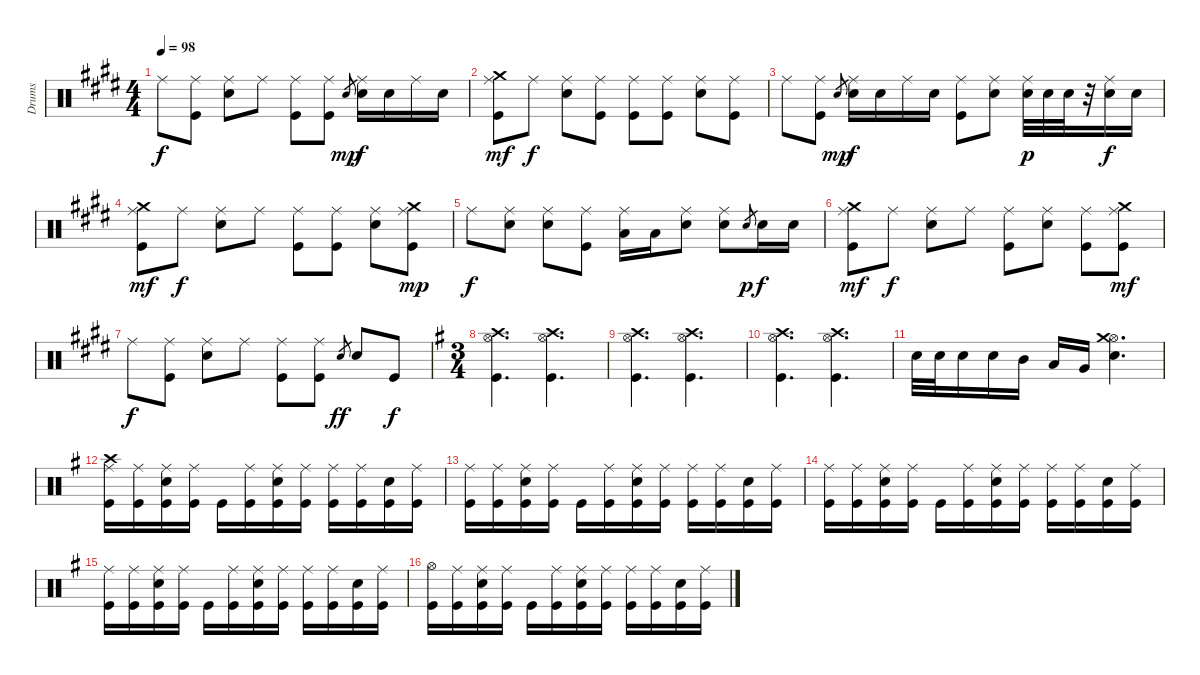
\track ("Drums" "Drums") {instrument percussion}
\staff {score}
\articulation defaults
\ts (4 4)
\tempo 98
\clef neutral
\ks c#minor "Ride (middle)".8{dy f}
("Ride (middle)" "Kick (hit)").8 ("Ride (middle)" "Electric Snare (hit)").8 "Ride (middle)".8 ("Ride (middle)" "Kick (hit)").8 ("Ride (middle)" "Kick (hit)").8 "Electric Snare (hit)".8{gr dy mp} ("Ride (middle)" "Electric Snare (hit)").16{dy f} "Electric Snare (hit)".16 "Ride (middle)".16 "Electric Snare (hit)".16 |
("Crash medium (hit)" "Ride (middle)" "Kick (hit)").8{dy mf} "Ride (middle)".8{dy f} ("Ride (middle)" "Electric Snare (hit)").8 ("Ride (middle)" "Kick (hit)").8 ("Ride (middle)" "Kick (hit)").8 ("Ride (middle)" "Kick (hit)").8 ("Ride (middle)" "Electric Snare (hit)").8 ("Ride (middle)" "Kick (hit)").8 |
"Ride (middle)".8 ("Ride (middle)" "Kick (hit)").8 "Electric Snare (hit)".8{gr dy mp} ("Ride (middle)" "Electric Snare (hit)").16{dy f} "Electric Snare (hit)".16 "Ride (middle)".16 "Electric Snare (hit)".16 ("Ride (middle)" "Kick (hit)").8 ("Ride (middle)" "Electric Snare (hit)").8 ("Ride (middle)" "Electric Snare (hit)").32{dy p} "Electric Snare (hit)".32 "Electric Snare (hit)".32 r.32 ("Ride (middle)" "Electric Snare (hit)").16{dy f} "Electric Snare (hit)".16 |
("Crash medium (hit)" "Ride (middle)" "Kick (hit)").8{dy mf} "Ride (middle)".8{dy f} ("Ride (middle)" "Electric Snare (hit)").8 "Ride (middle)".8 ("Ride (middle)" "Kick (hit)").8 ("Ride (middle)" "Kick (hit)").8 ("Ride (middle)" "Electric Snare (hit)").8 ("Crash medium (hit)" "Ride (middle)" "Kick (hit)").8{dy mp} |
"Ride (middle)".8{dy f} ("Ride (middle)" "Electric Snare (hit)").8 ("Ride (middle)" "Electric Snare (hit)").8 ("Ride (middle)" "Kick (hit)").8 ("Ride (middle)" "Low Tom (hit)").16 "Low Tom (hit)".16 ("Ride (middle)" "Electric Snare (hit)").8 ("Ride (middle)" "Electric Snare (hit)").8 "Electric Snare (hit)".8{gr dy p} "Electric Snare (hit)".16{dy f} "Electric Snare (hit)".16 |
("Crash medium (hit)" "Ride (middle)" "Kick (hit)").8{dy mf} "Ride (middle)".8{dy f} ("Ride (middle)" "Electric Snare (hit)").8 "Ride (middle)".8 ("Ride (middle)" "Kick (hit)").8 ("Ride (middle)" "Electric Snare (hit)").8 ("Ride (middle)" "Kick (hit)").8 ("Crash medium (hit)" "Ride (middle)" "Kick (hit)").8{dy mf} |
"Ride (middle)".8{dy f} ("Ride (middle)" "Kick (hit)").8 ("Ride (middle)" "Electric Snare (hit)").8 "Ride (middle)".8 ("Ride (middle)" "Kick (hit)").8 ("Ride (middle)" "Kick (hit)").8 "Snare (hit) 2"{sl}.8{gr dy ff} "Electric Snare (hit)".8 "Kick (hit)".8{dy f} |
\ts (3 4)
\ks eminor
("Crash high (hit)" "Hi-Hat (open)" "Kick (hit)").4{d} ("Crash high (hit)" "Hi-Hat (open)" "Kick (hit)").4{d} |
("Crash high (hit)" "Hi-Hat (open)" "Kick (hit)").4{d} ("Crash high (hit)" "Hi-Hat (open)" "Kick (hit)").4{d} |
("Crash high (hit)" "Hi-Hat (open)" "Kick (hit)").4{d} ("Crash high (hit)" "Hi-Hat (open)" "Kick (hit)").4{d} |
"Electric Snare (hit)".32 "Electric Snare (hit)".32 "Electric Snare (hit)".16 "Electric Snare (hit)".16 "Mid Tom (hit)".16 "Low Tom (hit)".16 "Very Low Tom (hit)".16 ("Hi-Hat (open)" "Crash medium (hit)" "Electric Snare (hit)").4{d} |
("Crash high (hit)" "Ride (middle)" "Kick (hit)").16 ("Ride (middle)" "Kick (hit)").16 ("Ride (middle)" "Electric Snare (hit)" "Kick (hit)").16 ("Ride (middle)" "Kick (hit)").16 "Kick (hit)".16 ("Ride (middle)" "Kick (hit)").16 ("Ride (middle)" "Electric Snare (hit)" "Kick (hit)").16 ("Ride (middle)" "Kick (hit)").16 ("Ride (middle)" "Kick (hit)").16 ("Ride (middle)" "Kick (hit)").16 ("Electric Snare (hit)" "Kick (hit)").16 ("Ride (middle)" "Kick (hit)").16 |
("Ride (middle)" "Kick (hit)").16 ("Ride (middle)" "Kick (hit)").16 ("Ride (middle)" "Electric Snare (hit)" "Kick (hit)").16 ("Ride (middle)" "Kick (hit)").16 "Kick (hit)".16 ("Ride (middle)" "Kick (hit)").16 ("Ride (middle)" "Electric Snare (hit)" "Kick (hit)").16 ("Ride (middle)" "Kick (hit)").16 ("Ride (middle)" "Kick (hit)").16 ("Ride (middle)" "Kick (hit)").16 ("Electric Snare (hit)" "Kick (hit)").16 ("Ride (middle)" "Kick (hit)").16 |
("Ride (middle)" "Kick (hit)").16 ("Ride (middle)" "Kick (hit)").16 ("Ride (middle)" "Electric Snare (hit)" "Kick (hit)").16 ("Ride (middle)" "Kick (hit)").16 "Kick (hit)".16 ("Ride (middle)" "Kick (hit)").16 ("Ride (middle)" "Electric Snare (hit)" "Kick (hit)").16 ("Ride (middle)" "Kick (hit)").16 ("Ride (middle)" "Kick (hit)").16 ("Ride (middle)" "Kick (hit)").16 ("Electric Snare (hit)" "Kick (hit)").16 ("Ride (middle)" "Kick (hit)").16 |
("Ride (middle)" "Kick (hit)").16 ("Ride (middle)" "Kick (hit)").16 ("Ride (middle)" "Electric Snare (hit)" "Kick (hit)").16 ("Ride (middle)" "Kick (hit)").16 "Kick (hit)".16 ("Ride (middle)" "Kick (hit)").16 ("Ride (middle)" "Electric Snare (hit)" "Kick (hit)").16 ("Ride (middle)" "Kick (hit)").16 ("Ride (middle)" "Kick (hit)").16 ("Ride (middle)" "Kick (hit)").16 ("Electric Snare (hit)" "Kick (hit)").16 ("Ride (middle)" "Kick (hit)").16 |
("Hi-Hat (open)" "Kick (hit)").16 ("Ride (middle)" "Kick (hit)").16 ("Ride (middle)" "Electric Snare (hit)" "Kick (hit)").16 ("Ride (middle)" "Kick (hit)").16 "Kick (hit)".16 ("Ride (middle)" "Kick (hit)").16 ("Ride (middle)" "Electric Snare (hit)" "Kick (hit)").16 ("Ride (middle)" "Kick (hit)").16 ("Ride (middle)" "Kick (hit)").16 ("Ride (middle)" "Kick (hit)").16 ("Electric Snare (hit)" "Kick (hit)").16 ("Ride (middle)" "Kick (hit)").16
